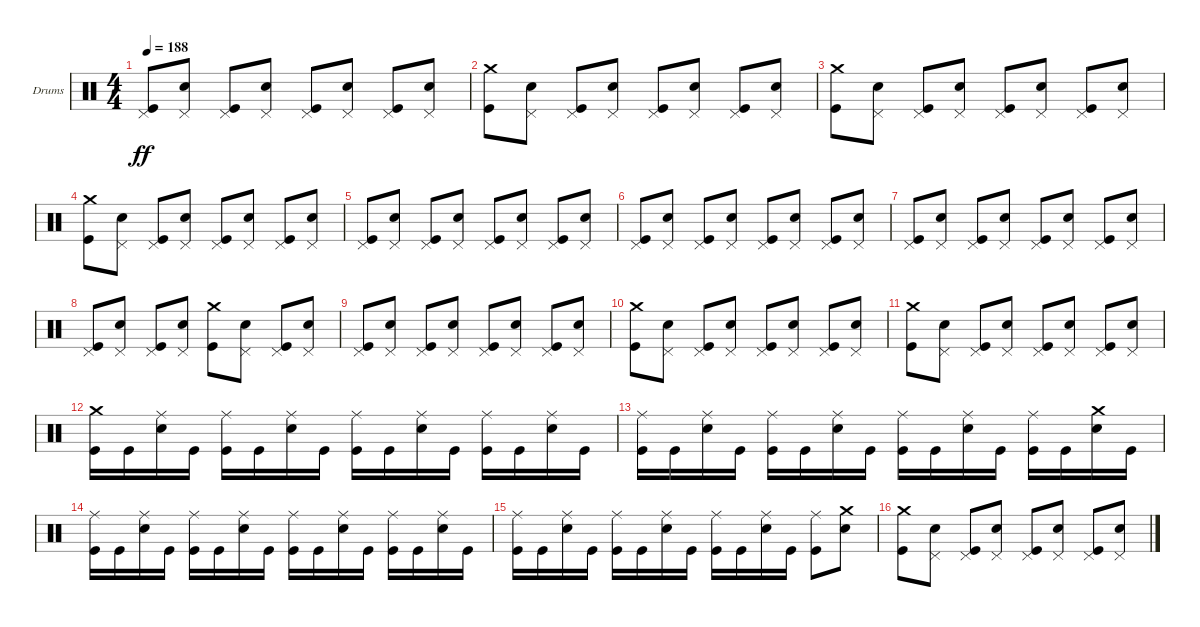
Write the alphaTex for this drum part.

\bracketExtendMode groupsimilarinstruments
\firstSystemTrackNameOrientation horizontal
\otherSystemsTrackNameOrientation horizontal
\track ("Drums" "Drums") {instrument percussion}
\staff {score}
\articulation defaults
\ts (4 4)
\tempo 188
\clef neutral
\ks c
("Kick (hit)" "Pedal Hi-Hat (hit)").8{dy ff} ("Snare (hit) 2" "Pedal Hi-Hat (hit)").8 ("Kick (hit)" "Pedal Hi-Hat (hit)").8 ("Snare (hit) 2" "Pedal Hi-Hat (hit)").8 ("Kick (hit)" "Pedal Hi-Hat (hit)").8 ("Snare (hit) 2" "Pedal Hi-Hat (hit)").8 ("Kick (hit)" "Pedal Hi-Hat (hit)").8 ("Snare (hit) 2" "Pedal Hi-Hat (hit)").8 |
("Kick (hit)" "Crash medium (hit)").8 ("Snare (hit) 2" "Pedal Hi-Hat (hit)").8 ("Kick (hit)" "Pedal Hi-Hat (hit)").8 ("Snare (hit) 2" "Pedal Hi-Hat (hit)").8 ("Kick (hit)" "Pedal Hi-Hat (hit)").8 ("Snare (hit) 2" "Pedal Hi-Hat (hit)").8 ("Kick (hit)" "Pedal Hi-Hat (hit)").8 ("Snare (hit) 2" "Pedal Hi-Hat (hit)").8 |
("Kick (hit)" "Crash medium (hit)").8 ("Snare (hit) 2" "Pedal Hi-Hat (hit)").8 ("Kick (hit)" "Pedal Hi-Hat (hit)").8 ("Snare (hit) 2" "Pedal Hi-Hat (hit)").8 ("Kick (hit)" "Pedal Hi-Hat (hit)").8 ("Snare (hit) 2" "Pedal Hi-Hat (hit)").8 ("Kick (hit)" "Pedal Hi-Hat (hit)").8 ("Snare (hit) 2" "Pedal Hi-Hat (hit)").8 |
("Kick (hit)" "Crash medium (hit)").8 ("Snare (hit) 2" "Pedal Hi-Hat (hit)").8 ("Kick (hit)" "Pedal Hi-Hat (hit)").8 ("Snare (hit) 2" "Pedal Hi-Hat (hit)").8 ("Kick (hit)" "Pedal Hi-Hat (hit)").8 ("Snare (hit) 2" "Pedal Hi-Hat (hit)").8 ("Kick (hit)" "Pedal Hi-Hat (hit)").8 ("Snare (hit) 2" "Pedal Hi-Hat (hit)").8 |
("Kick (hit)" "Pedal Hi-Hat (hit)").8 ("Snare (hit) 2" "Pedal Hi-Hat (hit)").8 ("Kick (hit)" "Pedal Hi-Hat (hit)").8 ("Snare (hit) 2" "Pedal Hi-Hat (hit)").8 ("Kick (hit)" "Pedal Hi-Hat (hit)").8 ("Snare (hit) 2" "Pedal Hi-Hat (hit)").8 ("Kick (hit)" "Pedal Hi-Hat (hit)").8 ("Snare (hit) 2" "Pedal Hi-Hat (hit)").8 |
("Kick (hit)" "Pedal Hi-Hat (hit)").8 ("Snare (hit) 2" "Pedal Hi-Hat (hit)").8 ("Kick (hit)" "Pedal Hi-Hat (hit)").8 ("Snare (hit) 2" "Pedal Hi-Hat (hit)").8 ("Kick (hit)" "Pedal Hi-Hat (hit)").8 ("Snare (hit) 2" "Pedal Hi-Hat (hit)").8 ("Kick (hit)" "Pedal Hi-Hat (hit)").8 ("Snare (hit) 2" "Pedal Hi-Hat (hit)").8 |
("Kick (hit)" "Pedal Hi-Hat (hit)").8 ("Snare (hit) 2" "Pedal Hi-Hat (hit)").8 ("Kick (hit)" "Pedal Hi-Hat (hit)").8 ("Snare (hit) 2" "Pedal Hi-Hat (hit)").8 ("Kick (hit)" "Pedal Hi-Hat (hit)").8 ("Snare (hit) 2" "Pedal Hi-Hat (hit)").8 ("Kick (hit)" "Pedal Hi-Hat (hit)").8 ("Snare (hit) 2" "Pedal Hi-Hat (hit)").8 |
("Kick (hit)" "Pedal Hi-Hat (hit)").8 ("Snare (hit) 2" "Pedal Hi-Hat (hit)").8 ("Kick (hit)" "Pedal Hi-Hat (hit)").8 ("Snare (hit) 2" "Pedal Hi-Hat (hit)").8 ("Kick (hit)" "Crash medium (hit)").8 ("Snare (hit) 2" "Pedal Hi-Hat (hit)").8 ("Kick (hit)" "Pedal Hi-Hat (hit)").8 ("Snare (hit) 2" "Pedal Hi-Hat (hit)").8 |
("Kick (hit)" "Pedal Hi-Hat (hit)").8 ("Snare (hit) 2" "Pedal Hi-Hat (hit)").8 ("Kick (hit)" "Pedal Hi-Hat (hit)").8 ("Snare (hit) 2" "Pedal Hi-Hat (hit)").8 ("Kick (hit)" "Pedal Hi-Hat (hit)").8 ("Snare (hit) 2" "Pedal Hi-Hat (hit)").8 ("Kick (hit)" "Pedal Hi-Hat (hit)").8 ("Snare (hit) 2" "Pedal Hi-Hat (hit)").8 |
("Kick (hit)" "Crash medium (hit)").8 ("Snare (hit) 2" "Pedal Hi-Hat (hit)").8 ("Kick (hit)" "Pedal Hi-Hat (hit)").8 ("Snare (hit) 2" "Pedal Hi-Hat (hit)").8 ("Kick (hit)" "Pedal Hi-Hat (hit)").8 ("Snare (hit) 2" "Pedal Hi-Hat (hit)").8 ("Kick (hit)" "Pedal Hi-Hat (hit)").8 ("Snare (hit) 2" "Pedal Hi-Hat (hit)").8 |
("Kick (hit)" "Crash medium (hit)").8 ("Snare (hit) 2" "Pedal Hi-Hat (hit)").8 ("Kick (hit)" "Pedal Hi-Hat (hit)").8 ("Snare (hit) 2" "Pedal Hi-Hat (hit)").8 ("Kick (hit)" "Pedal Hi-Hat (hit)").8 ("Snare (hit) 2" "Pedal Hi-Hat (hit)").8 ("Kick (hit)" "Pedal Hi-Hat (hit)").8 ("Snare (hit) 2" "Pedal Hi-Hat (hit)").8 |
("Kick (hit)" "Crash medium (hit)").16 "Kick (hit)".16 ("Snare (hit) 2" "Ride (middle)").16 "Kick (hit)".16 ("Kick (hit)" "Ride (middle)").16 "Kick (hit)".16 ("Snare (hit) 2" "Ride (middle)").16 "Kick (hit)".16 ("Kick (hit)" "Ride (middle)").16 "Kick (hit)".16 ("Snare (hit) 2" "Ride (middle)").16 "Kick (hit)".16 ("Kick (hit)" "Ride (middle)").16 "Kick (hit)".16 ("Snare (hit) 2" "Ride (middle)").16 "Kick (hit)".16 |
("Kick (hit)" "Ride (middle)").16 "Kick (hit)".16 ("Snare (hit) 2" "Ride (middle)").16 "Kick (hit)".16 ("Kick (hit)" "Ride (middle)").16 "Kick (hit)".16 ("Snare (hit) 2" "Ride (middle)").16 "Kick (hit)".16 ("Kick (hit)" "Ride (middle)").16 "Kick (hit)".16 ("Snare (hit) 2" "Ride (middle)").16 "Kick (hit)".16 ("Kick (hit)" "Ride (middle)").16 "Kick (hit)".16 ("Snare (hit) 2" "Crash medium (hit)").16 "Kick (hit)".16 |
("Kick (hit)" "Ride (middle)").16 "Kick (hit)".16 ("Snare (hit) 2" "Ride (middle)").16 "Kick (hit)".16 ("Kick (hit)" "Ride (middle)").16 "Kick (hit)".16 ("Snare (hit) 2" "Ride (middle)").16 "Kick (hit)".16 ("Kick (hit)" "Ride (middle)").16 "Kick (hit)".16 ("Snare (hit) 2" "Ride (middle)").16 "Kick (hit)".16 ("Kick (hit)" "Ride (middle)").16 "Kick (hit)".16 ("Snare (hit) 2" "Ride (middle)").16 "Kick (hit)".16 |
("Kick (hit)" "Ride (middle)").16 "Kick (hit)".16 ("Snare (hit) 2" "Ride (middle)").16 "Kick (hit)".16 ("Kick (hit)" "Ride (middle)").16 "Kick (hit)".16 ("Snare (hit) 2" "Ride (middle)").16 "Kick (hit)".16 ("Kick (hit)" "Ride (middle)").16 "Kick (hit)".16 ("Snare (hit) 2" "Ride (middle)").16 "Kick (hit)".16 ("Kick (hit)" "Ride (middle)").8 ("Snare (hit) 2" "Crash medium (hit)").8 |
("Kick (hit)" "Crash medium (hit)").8 ("Snare (hit) 2" "Pedal Hi-Hat (hit)").8 ("Kick (hit)" "Pedal Hi-Hat (hit)").8 ("Snare (hit) 2" "Pedal Hi-Hat (hit)").8 ("Kick (hit)" "Pedal Hi-Hat (hit)").8 ("Snare (hit) 2" "Pedal Hi-Hat (hit)").8 ("Kick (hit)" "Pedal Hi-Hat (hit)").8 ("Snare (hit) 2" "Pedal Hi-Hat (hit)").8
